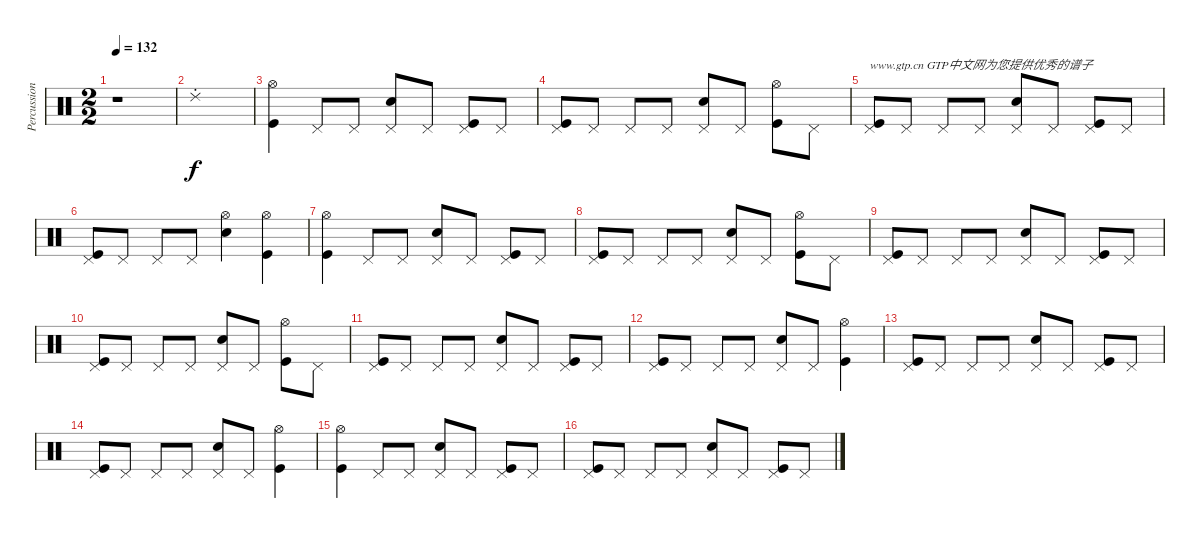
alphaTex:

\track ("Percussion" "Percussion") {instrument percussion}
\staff {score}
\articulation defaults
\ts (2 2)
\tempo 132
\clef neutral
\ks c
r.1{dy f} |
"Ride (choke) 2".1{volume 16} |
("Hi-Hat (open)" "Kick (hit)").4 "Pedal Hi-Hat (hit)".8 "Pedal Hi-Hat (hit)".8 ("Pedal Hi-Hat (hit)" "Electric Snare (hit)").8 "Pedal Hi-Hat (hit)".8 ("Pedal Hi-Hat (hit)" "Kick (hit)").8 "Pedal Hi-Hat (hit)".8 |
("Pedal Hi-Hat (hit)" "Kick (hit)").8 "Pedal Hi-Hat (hit)".8 "Pedal Hi-Hat (hit)".8 "Pedal Hi-Hat (hit)".8 ("Pedal Hi-Hat (hit)" "Electric Snare (hit)").8 "Pedal Hi-Hat (hit)".8 ("Hi-Hat (open)" "Kick (hit)").8 "Pedal Hi-Hat (hit)".8 |
("Pedal Hi-Hat (hit)" "Kick (hit)").8{txt "www.gtp.cn GTP中文网为您提供优秀的谱子"} "Pedal Hi-Hat (hit)".8 "Pedal Hi-Hat (hit)".8 "Pedal Hi-Hat (hit)".8 ("Pedal Hi-Hat (hit)" "Electric Snare (hit)").8 "Pedal Hi-Hat (hit)".8 ("Pedal Hi-Hat (hit)" "Kick (hit)").8 "Pedal Hi-Hat (hit)".8 |
("Pedal Hi-Hat (hit)" "Kick (hit)").8 "Pedal Hi-Hat (hit)".8 "Pedal Hi-Hat (hit)".8 "Pedal Hi-Hat (hit)".8 ("Hi-Hat (open)" "Electric Snare (hit)").4 ("Hi-Hat (open)" "Kick (hit)").4 |
("Hi-Hat (open)" "Kick (hit)").4 "Pedal Hi-Hat (hit)".8 "Pedal Hi-Hat (hit)".8 ("Pedal Hi-Hat (hit)" "Electric Snare (hit)").8 "Pedal Hi-Hat (hit)".8 ("Pedal Hi-Hat (hit)" "Kick (hit)").8 "Pedal Hi-Hat (hit)".8 |
("Pedal Hi-Hat (hit)" "Kick (hit)").8 "Pedal Hi-Hat (hit)".8 "Pedal Hi-Hat (hit)".8 "Pedal Hi-Hat (hit)".8 ("Pedal Hi-Hat (hit)" "Electric Snare (hit)").8 "Pedal Hi-Hat (hit)".8 ("Hi-Hat (open)" "Kick (hit)").8 "Pedal Hi-Hat (hit)".8 |
("Pedal Hi-Hat (hit)" "Kick (hit)").8 "Pedal Hi-Hat (hit)".8 "Pedal Hi-Hat (hit)".8 "Pedal Hi-Hat (hit)".8 ("Pedal Hi-Hat (hit)" "Electric Snare (hit)").8 "Pedal Hi-Hat (hit)".8 ("Pedal Hi-Hat (hit)" "Kick (hit)").8 "Pedal Hi-Hat (hit)".8 |
("Pedal Hi-Hat (hit)" "Kick (hit)").8 "Pedal Hi-Hat (hit)".8 "Pedal Hi-Hat (hit)".8 "Pedal Hi-Hat (hit)".8 ("Pedal Hi-Hat (hit)" "Electric Snare (hit)").8 "Pedal Hi-Hat (hit)".8 ("Hi-Hat (open)" "Kick (hit)").8 "Pedal Hi-Hat (hit)".8 |
("Pedal Hi-Hat (hit)" "Kick (hit)").8 "Pedal Hi-Hat (hit)".8 "Pedal Hi-Hat (hit)".8 "Pedal Hi-Hat (hit)".8 ("Pedal Hi-Hat (hit)" "Electric Snare (hit)").8 "Pedal Hi-Hat (hit)".8 ("Pedal Hi-Hat (hit)" "Kick (hit)").8 "Pedal Hi-Hat (hit)".8 |
("Pedal Hi-Hat (hit)" "Kick (hit)").8 "Pedal Hi-Hat (hit)".8 "Pedal Hi-Hat (hit)".8 "Pedal Hi-Hat (hit)".8 ("Pedal Hi-Hat (hit)" "Electric Snare (hit)").8 "Pedal Hi-Hat (hit)".8 ("Hi-Hat (open)" "Kick (hit)").4 |
("Pedal Hi-Hat (hit)" "Kick (hit)").8 "Pedal Hi-Hat (hit)".8 "Pedal Hi-Hat (hit)".8 "Pedal Hi-Hat (hit)".8 ("Pedal Hi-Hat (hit)" "Electric Snare (hit)").8 "Pedal Hi-Hat (hit)".8 ("Pedal Hi-Hat (hit)" "Kick (hit)").8 "Pedal Hi-Hat (hit)".8 |
("Pedal Hi-Hat (hit)" "Kick (hit)").8 "Pedal Hi-Hat (hit)".8 "Pedal Hi-Hat (hit)".8 "Pedal Hi-Hat (hit)".8 ("Pedal Hi-Hat (hit)" "Electric Snare (hit)").8 "Pedal Hi-Hat (hit)".8 ("Hi-Hat (open)" "Kick (hit)").4 |
("Hi-Hat (open)" "Kick (hit)").4 "Pedal Hi-Hat (hit)".8 "Pedal Hi-Hat (hit)".8 ("Pedal Hi-Hat (hit)" "Electric Snare (hit)").8 "Pedal Hi-Hat (hit)".8 ("Pedal Hi-Hat (hit)" "Kick (hit)").8 "Pedal Hi-Hat (hit)".8 |
("Pedal Hi-Hat (hit)" "Kick (hit)").8 "Pedal Hi-Hat (hit)".8 "Pedal Hi-Hat (hit)".8 "Pedal Hi-Hat (hit)".8 ("Pedal Hi-Hat (hit)" "Electric Snare (hit)").8 "Pedal Hi-Hat (hit)".8 ("Pedal Hi-Hat (hit)" "Kick (hit)").8 "Pedal Hi-Hat (hit)".8
